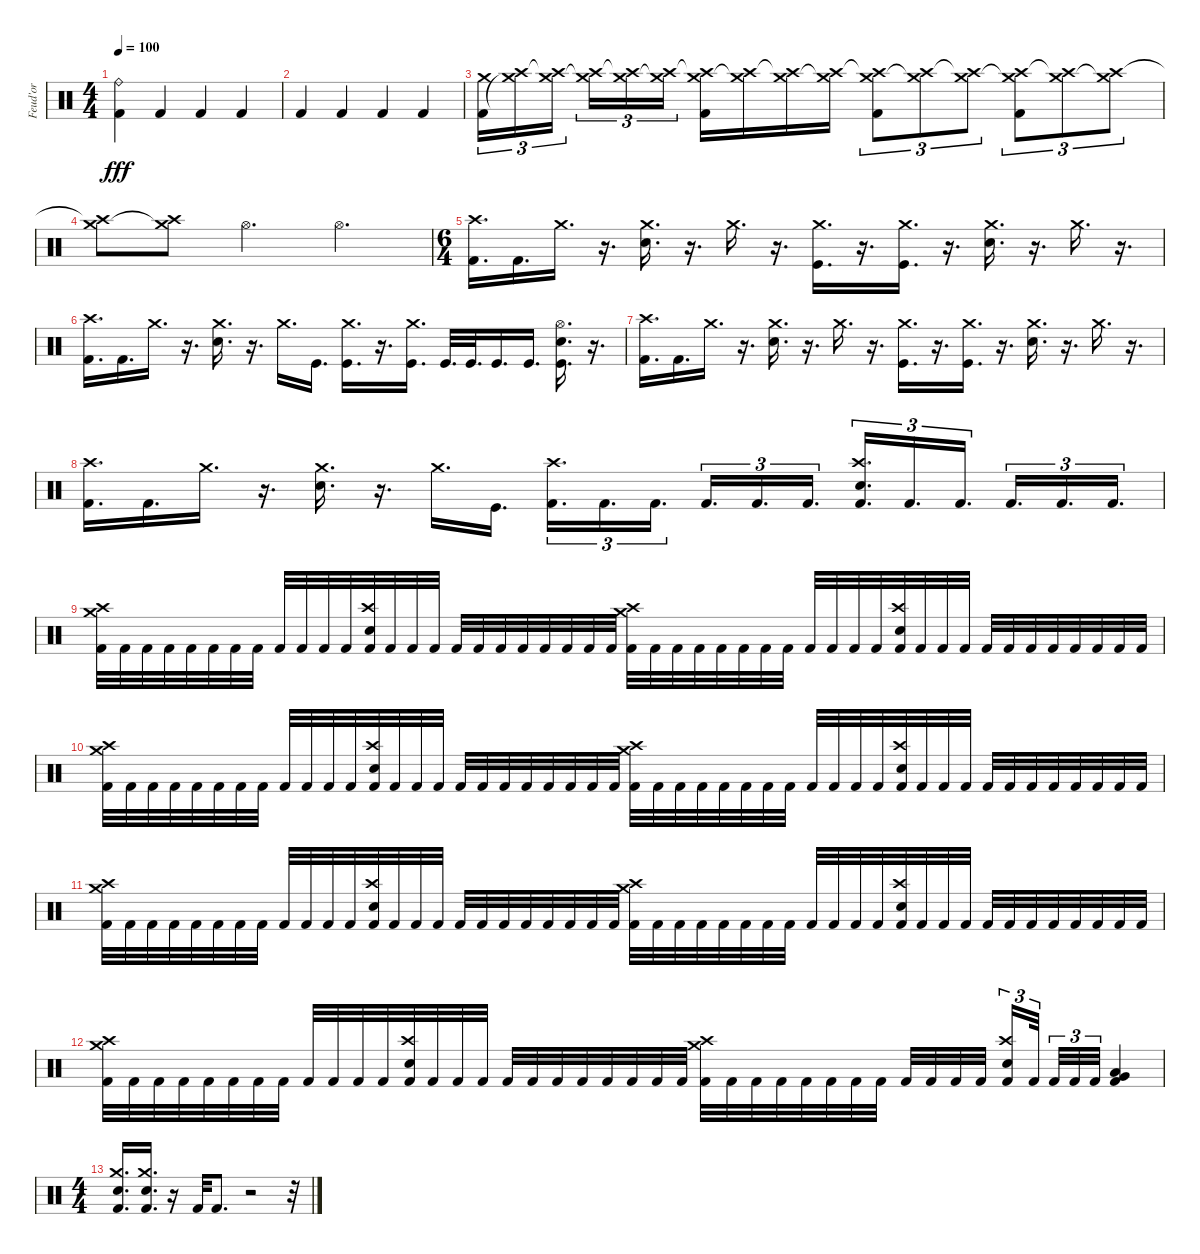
\track ("Feud'or" "Feud'or") {instrument percussion}
\staff {score}
\articulation defaults
\ts (4 4)
\tempo 100
\clef neutral
\ks c
("Ride (bell)" "Kick (hit) 2").4{dy fff} "Kick (hit) 2".4 "Kick (hit) 2".4 "Kick (hit) 2".4 |
"Kick (hit) 2".4 "Kick (hit) 2".4 "Kick (hit) 2".4 "Kick (hit) 2".4 |
("Crash medium (hit)" "Kick (hit) 2").16{tu (3 2)} ("Crash high (hit)" "Crash medium (hit)"{t}).16{tu (3 2)} ("Crash high (hit)"{t} "Crash medium (hit)").16{tu (3 2) beam splitsecondary} ("Crash high (hit)" "Crash medium (hit)"{t}).16{tu (3 2)} ("Crash high (hit)"{t} "Crash medium (hit)").16{tu (3 2)} ("Crash high (hit)" "Crash medium (hit)"{t}).16{tu (3 2)} ("Crash high (hit)"{t} "Crash medium (hit)" "Kick (hit) 2").16 ("Crash high (hit)" "Crash medium (hit)"{t}).16 ("Crash high (hit)"{t} "Crash medium (hit)").16 ("Crash high (hit)" "Crash medium (hit)"{t}).16 ("Crash high (hit)"{t} "Crash medium (hit)" "Kick (hit) 2").8{tu (3 2)} ("Crash high (hit)" "Crash medium (hit)"{t}).8{tu (3 2)} ("Crash high (hit)"{t} "Crash medium (hit)").8{tu (3 2)} ("Crash high (hit)" "Crash medium (hit)"{t} "Kick (hit) 2").8{tu (3 2)} ("Crash high (hit)"{t} "Crash medium (hit)").8{tu (3 2)} ("Crash high (hit)" "Crash medium (hit)"{t}).8{tu (3 2)} |
("Crash high (hit)"{t} "Crash medium (hit)").8 ("Crash high (hit)" "Crash medium (hit)"{t}).8 "Hi-Hat (open)".4{d} "Hi-Hat (open)".4{d} |
\ts (6 4)
("Crash high (hit)" "Kick (hit) 2").16{d} "Kick (hit) 2".16{d} "Crash medium (hit)".16{d} r.16{d} ("Crash medium (hit)" "Snare (hit) 2").16{d} r.16{d} "Crash medium (hit)".16{d} r.16{d} ("Crash medium (hit)" "Kick (hit)").16{d} r.16{d} ("Crash medium (hit)" "Kick (hit)").16{d} r.16{d} ("Crash medium (hit)" "Snare (hit) 2").16{d} r.16{d} "Crash medium (hit)".16{d} r.16{d} |
("Crash high (hit)" "Kick (hit) 2").16{d} "Kick (hit) 2".16{d} "Crash medium (hit)".16{d} r.16{d} ("Crash medium (hit)" "Snare (hit) 2").16{d} r.16{d} "Crash medium (hit)".16{d} "Kick (hit)".16{d} ("Crash medium (hit)" "Kick (hit)").16{d} r.16{d} ("Crash medium (hit)" "Kick (hit)").16{d} "Kick (hit)".32{d} "Kick (hit)".32{d} "Kick (hit)".16{d} "Kick (hit)".16{d} ("Hi-Hat (open)" "Snare (hit) 2" "Kick (hit)").16{d} r.16{d} |
("Crash high (hit)" "Kick (hit) 2").16{d} "Kick (hit) 2".16{d} "Crash medium (hit)".16{d} r.16{d} ("Crash medium (hit)" "Snare (hit) 2").16{d} r.16{d} "Crash medium (hit)".16{d} r.16{d} ("Crash medium (hit)" "Kick (hit)").16{d} r.16{d} ("Crash medium (hit)" "Kick (hit)").16{d} r.16{d} ("Crash medium (hit)" "Snare (hit) 2").16{d} r.16{d} "Crash medium (hit)".16{d} r.16{d} |
("Crash high (hit)" "Kick (hit) 2").16{d} "Kick (hit) 2".16{d} "Crash medium (hit)".16{d} r.16{d} ("Crash medium (hit)" "Snare (hit) 2").16{d} r.16{d} "Crash medium (hit)".16{d} "Kick (hit)".16{d} ("Crash high (hit)" "Kick (hit) 2").16{d tu (3 2)} "Kick (hit) 2".16{d tu (3 2)} "Kick (hit) 2".16{d tu (3 2)} "Kick (hit) 2".16{d tu (3 2)} "Kick (hit) 2".16{d tu (3 2)} "Kick (hit) 2".16{d tu (3 2)} ("Crash high (hit)" "Snare (hit) 2" "Kick (hit) 2").16{d tu (3 2)} "Kick (hit) 2".16{d tu (3 2)} "Kick (hit) 2".16{d tu (3 2)} "Kick (hit) 2".16{d tu (3 2)} "Kick (hit) 2".16{d tu (3 2)} "Kick (hit) 2".16{d tu (3 2)} |
("Crash high (hit)" "Crash medium (hit)" "Kick (hit) 2").32 "Kick (hit) 2".32 "Kick (hit) 2".32 "Kick (hit) 2".32 "Kick (hit) 2".32 "Kick (hit) 2".32 "Kick (hit) 2".32 "Kick (hit) 2".32 "Kick (hit) 2".32 "Kick (hit) 2".32 "Kick (hit) 2".32 "Kick (hit) 2".32 ("Crash high (hit)" "Snare (hit) 2" "Kick (hit) 2").32 "Kick (hit) 2".32 "Kick (hit) 2".32 "Kick (hit) 2".32 "Kick (hit) 2".32 "Kick (hit) 2".32 "Kick (hit) 2".32 "Kick (hit) 2".32 "Kick (hit) 2".32 "Kick (hit) 2".32 "Kick (hit) 2".32 "Kick (hit) 2".32 ("Crash high (hit)" "Crash medium (hit)" "Kick (hit) 2").32 "Kick (hit) 2".32 "Kick (hit) 2".32 "Kick (hit) 2".32 "Kick (hit) 2".32 "Kick (hit) 2".32 "Kick (hit) 2".32 "Kick (hit) 2".32 "Kick (hit) 2".32 "Kick (hit) 2".32 "Kick (hit) 2".32 "Kick (hit) 2".32 ("Crash high (hit)" "Snare (hit) 2" "Kick (hit) 2").32 "Kick (hit) 2".32 "Kick (hit) 2".32 "Kick (hit) 2".32 "Kick (hit) 2".32 "Kick (hit) 2".32 "Kick (hit) 2".32 "Kick (hit) 2".32 "Kick (hit) 2".32 "Kick (hit) 2".32 "Kick (hit) 2".32 "Kick (hit) 2".32 |
("Crash high (hit)" "Crash medium (hit)" "Kick (hit) 2").32 "Kick (hit) 2".32 "Kick (hit) 2".32 "Kick (hit) 2".32 "Kick (hit) 2".32 "Kick (hit) 2".32 "Kick (hit) 2".32 "Kick (hit) 2".32 "Kick (hit) 2".32 "Kick (hit) 2".32 "Kick (hit) 2".32 "Kick (hit) 2".32 ("Crash high (hit)" "Snare (hit) 2" "Kick (hit) 2").32 "Kick (hit) 2".32 "Kick (hit) 2".32 "Kick (hit) 2".32 "Kick (hit) 2".32 "Kick (hit) 2".32 "Kick (hit) 2".32 "Kick (hit) 2".32 "Kick (hit) 2".32 "Kick (hit) 2".32 "Kick (hit) 2".32 "Kick (hit) 2".32 ("Crash high (hit)" "Crash medium (hit)" "Kick (hit) 2").32 "Kick (hit) 2".32 "Kick (hit) 2".32 "Kick (hit) 2".32 "Kick (hit) 2".32 "Kick (hit) 2".32 "Kick (hit) 2".32 "Kick (hit) 2".32 "Kick (hit) 2".32 "Kick (hit) 2".32 "Kick (hit) 2".32 "Kick (hit) 2".32 ("Crash high (hit)" "Snare (hit) 2" "Kick (hit) 2").32 "Kick (hit) 2".32 "Kick (hit) 2".32 "Kick (hit) 2".32 "Kick (hit) 2".32 "Kick (hit) 2".32 "Kick (hit) 2".32 "Kick (hit) 2".32 "Kick (hit) 2".32 "Kick (hit) 2".32 "Kick (hit) 2".32 "Kick (hit) 2".32 |
("Crash high (hit)" "Crash medium (hit)" "Kick (hit) 2").32 "Kick (hit) 2".32 "Kick (hit) 2".32 "Kick (hit) 2".32 "Kick (hit) 2".32 "Kick (hit) 2".32 "Kick (hit) 2".32 "Kick (hit) 2".32 "Kick (hit) 2".32 "Kick (hit) 2".32 "Kick (hit) 2".32 "Kick (hit) 2".32 ("Crash high (hit)" "Snare (hit) 2" "Kick (hit) 2").32 "Kick (hit) 2".32 "Kick (hit) 2".32 "Kick (hit) 2".32 "Kick (hit) 2".32 "Kick (hit) 2".32 "Kick (hit) 2".32 "Kick (hit) 2".32 "Kick (hit) 2".32 "Kick (hit) 2".32 "Kick (hit) 2".32 "Kick (hit) 2".32 ("Crash high (hit)" "Crash medium (hit)" "Kick (hit) 2").32 "Kick (hit) 2".32 "Kick (hit) 2".32 "Kick (hit) 2".32 "Kick (hit) 2".32 "Kick (hit) 2".32 "Kick (hit) 2".32 "Kick (hit) 2".32 "Kick (hit) 2".32 "Kick (hit) 2".32 "Kick (hit) 2".32 "Kick (hit) 2".32 ("Crash high (hit)" "Snare (hit) 2" "Kick (hit) 2").32 "Kick (hit) 2".32 "Kick (hit) 2".32 "Kick (hit) 2".32 "Kick (hit) 2".32 "Kick (hit) 2".32 "Kick (hit) 2".32 "Kick (hit) 2".32 "Kick (hit) 2".32 "Kick (hit) 2".32 "Kick (hit) 2".32 "Kick (hit) 2".32 |
("Crash high (hit)" "Crash medium (hit)" "Kick (hit) 2").32 "Kick (hit) 2".32 "Kick (hit) 2".32 "Kick (hit) 2".32 "Kick (hit) 2".32 "Kick (hit) 2".32 "Kick (hit) 2".32 "Kick (hit) 2".32 "Kick (hit) 2".32 "Kick (hit) 2".32 "Kick (hit) 2".32 "Kick (hit) 2".32 ("Crash high (hit)" "Snare (hit) 2" "Kick (hit) 2").32 "Kick (hit) 2".32 "Kick (hit) 2".32 "Kick (hit) 2".32 "Kick (hit) 2".32 "Kick (hit) 2".32 "Kick (hit) 2".32 "Kick (hit) 2".32 "Kick (hit) 2".32 "Kick (hit) 2".32 "Kick (hit) 2".32 "Kick (hit) 2".32 ("Crash high (hit)" "Crash medium (hit)" "Kick (hit) 2").32 "Kick (hit) 2".32 "Kick (hit) 2".32 "Kick (hit) 2".32 "Kick (hit) 2".32 "Kick (hit) 2".32 "Kick (hit) 2".32 "Kick (hit) 2".32 "Kick (hit) 2".32 "Kick (hit) 2".32 "Kick (hit) 2".32 "Kick (hit) 2".32{beam splitsecondary} ("Crash high (hit)" "Snare (hit) 2" "Kick (hit) 2").16{tu (3 2)} "Kick (hit) 2".32{tu (3 2) beam splitsecondary} "Kick (hit) 2".32{tu (3 2)} "Kick (hit) 2".32{tu (3 2)} "Kick (hit) 2".32{tu (3 2)} ("Very Low Tom (hit)" "Low Floor Tom (hit)" "Kick (hit) 2").4 |
\ts (4 4)
("Crash medium (hit)" "Snare (hit) 2" "Kick (hit) 2").16{d} ("Crash medium (hit)" "Snare (hit) 2" "Kick (hit) 2").16{d} r.16 "Kick (hit) 2".32 "Kick (hit) 2".8{d} r.2 r.32
